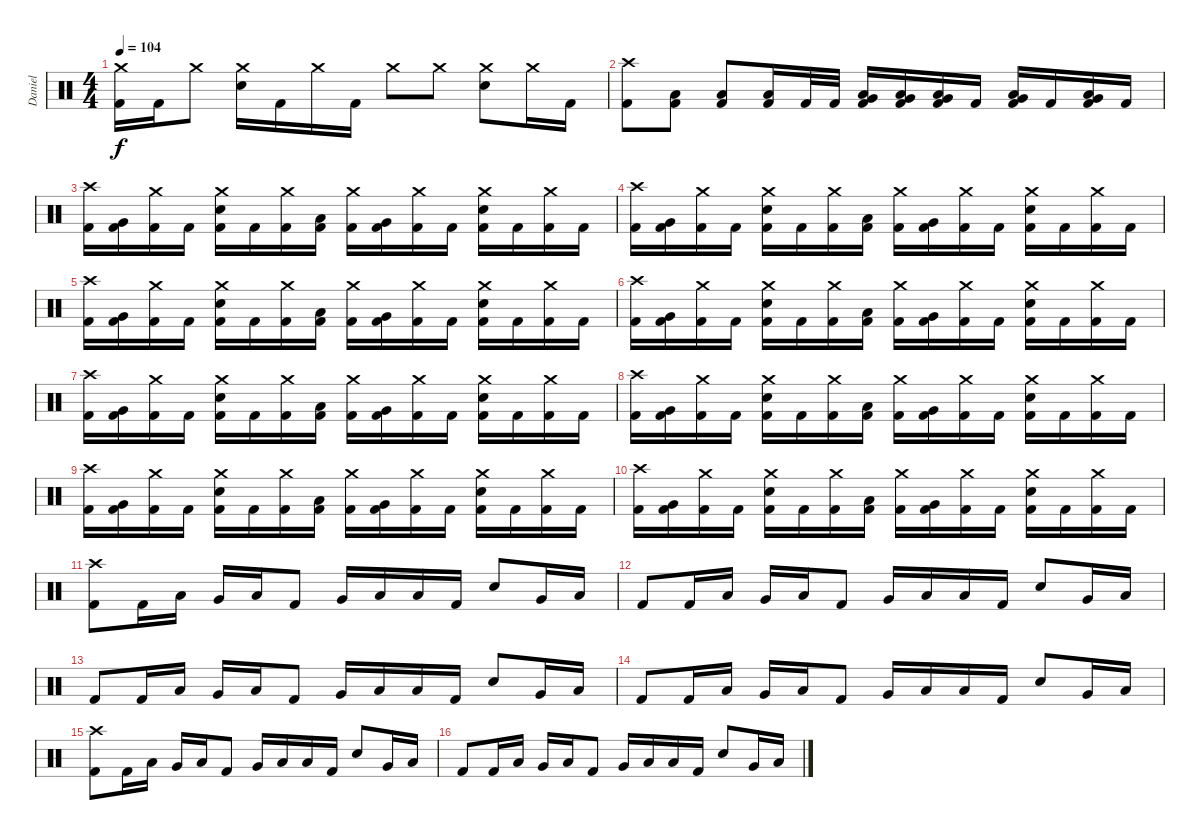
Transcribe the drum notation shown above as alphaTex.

\track ("Daniel" "Daniel") {instrument percussion}
\staff {score}
\articulation defaults
\ts (4 4)
\tempo 104
\clef neutral
\ks c
("Crash medium (hit)" "Kick (hit) 2").16{dy f} "Kick (hit) 2".16 "Crash medium (hit)".8 ("Crash medium (hit)" "Snare (hit) 2").16 "Kick (hit) 2".16 "Crash medium (hit)".16 "Kick (hit) 2".16 "Crash medium (hit)".8 "Crash medium (hit)".8 ("Crash medium (hit)" "Snare (hit) 2").8 "Crash medium (hit)".16 "Kick (hit) 2".16 |
("Crash high (hit)" "Kick (hit) 2").8 ("Low Floor Tom (hit)" "Kick (hit) 2").8 ("Low Floor Tom (hit)" "Kick (hit) 2").8 ("Low Floor Tom (hit)" "Kick (hit) 2").16 "Kick (hit) 2".32 "Kick (hit) 2".32 ("Low Tom (hit)" "Very Low Tom (hit)" "Kick (hit) 2").16 ("Low Tom (hit)" "Very Low Tom (hit)" "Kick (hit) 2").16 ("Low Tom (hit)" "Very Low Tom (hit)" "Kick (hit) 2").16 "Kick (hit) 2".16 ("Low Tom (hit)" "Very Low Tom (hit)" "Kick (hit) 2").16 "Kick (hit) 2".16 ("Very Low Tom (hit)" "Low Floor Tom (hit)" "Kick (hit) 2").16 "Kick (hit) 2".16 |
("Crash high (hit)" "Kick (hit) 2").16 ("Very Low Tom (hit)" "Kick (hit) 2").16 ("Crash medium (hit)" "Kick (hit) 2").16 "Kick (hit) 2".16 ("Crash medium (hit)" "Snare (hit) 2" "Kick (hit) 2").16 "Kick (hit) 2".16 ("Crash medium (hit)" "Kick (hit) 2").16 ("Low Tom (hit)" "Kick (hit) 2").16 ("Crash medium (hit)" "Kick (hit) 2").16 ("Very Low Tom (hit)" "Kick (hit) 2").16 ("Crash medium (hit)" "Kick (hit) 2").16 "Kick (hit) 2".16 ("Crash medium (hit)" "Snare (hit) 2" "Kick (hit) 2").16 "Kick (hit) 2".16 ("Crash medium (hit)" "Kick (hit) 2").16 "Kick (hit) 2".16 |
("Crash high (hit)" "Kick (hit) 2").16 ("Very Low Tom (hit)" "Kick (hit) 2").16 ("Crash medium (hit)" "Kick (hit) 2").16 "Kick (hit) 2".16 ("Crash medium (hit)" "Snare (hit) 2" "Kick (hit) 2").16 "Kick (hit) 2".16 ("Crash medium (hit)" "Kick (hit) 2").16 ("Low Tom (hit)" "Kick (hit) 2").16 ("Crash medium (hit)" "Kick (hit) 2").16 ("Very Low Tom (hit)" "Kick (hit) 2").16 ("Crash medium (hit)" "Kick (hit) 2").16 "Kick (hit) 2".16 ("Crash medium (hit)" "Snare (hit) 2" "Kick (hit) 2").16 "Kick (hit) 2".16 ("Crash medium (hit)" "Kick (hit) 2").16 "Kick (hit) 2".16 |
("Crash high (hit)" "Kick (hit) 2").16 ("Very Low Tom (hit)" "Kick (hit) 2").16 ("Crash medium (hit)" "Kick (hit) 2").16 "Kick (hit) 2".16 ("Crash medium (hit)" "Snare (hit) 2" "Kick (hit) 2").16 "Kick (hit) 2".16 ("Crash medium (hit)" "Kick (hit) 2").16 ("Low Tom (hit)" "Kick (hit) 2").16 ("Crash medium (hit)" "Kick (hit) 2").16 ("Very Low Tom (hit)" "Kick (hit) 2").16 ("Crash medium (hit)" "Kick (hit) 2").16 "Kick (hit) 2".16 ("Crash medium (hit)" "Snare (hit) 2" "Kick (hit) 2").16 "Kick (hit) 2".16 ("Crash medium (hit)" "Kick (hit) 2").16 "Kick (hit) 2".16 |
("Crash high (hit)" "Kick (hit) 2").16 ("Very Low Tom (hit)" "Kick (hit) 2").16 ("Crash medium (hit)" "Kick (hit) 2").16 "Kick (hit) 2".16 ("Crash medium (hit)" "Snare (hit) 2" "Kick (hit) 2").16 "Kick (hit) 2".16 ("Crash medium (hit)" "Kick (hit) 2").16 ("Low Tom (hit)" "Kick (hit) 2").16 ("Crash medium (hit)" "Kick (hit) 2").16 ("Very Low Tom (hit)" "Kick (hit) 2").16 ("Crash medium (hit)" "Kick (hit) 2").16 "Kick (hit) 2".16 ("Crash medium (hit)" "Snare (hit) 2" "Kick (hit) 2").16 "Kick (hit) 2".16 ("Crash medium (hit)" "Kick (hit) 2").16 "Kick (hit) 2".16 |
("Crash high (hit)" "Kick (hit) 2").16 ("Very Low Tom (hit)" "Kick (hit) 2").16 ("Crash medium (hit)" "Kick (hit) 2").16 "Kick (hit) 2".16 ("Crash medium (hit)" "Snare (hit) 2" "Kick (hit) 2").16 "Kick (hit) 2".16 ("Crash medium (hit)" "Kick (hit) 2").16 ("Low Tom (hit)" "Kick (hit) 2").16 ("Crash medium (hit)" "Kick (hit) 2").16 ("Very Low Tom (hit)" "Kick (hit) 2").16 ("Crash medium (hit)" "Kick (hit) 2").16 "Kick (hit) 2".16 ("Crash medium (hit)" "Snare (hit) 2" "Kick (hit) 2").16 "Kick (hit) 2".16 ("Crash medium (hit)" "Kick (hit) 2").16 "Kick (hit) 2".16 |
("Crash high (hit)" "Kick (hit) 2").16 ("Very Low Tom (hit)" "Kick (hit) 2").16 ("Crash medium (hit)" "Kick (hit) 2").16 "Kick (hit) 2".16 ("Crash medium (hit)" "Snare (hit) 2" "Kick (hit) 2").16 "Kick (hit) 2".16 ("Crash medium (hit)" "Kick (hit) 2").16 ("Low Tom (hit)" "Kick (hit) 2").16 ("Crash medium (hit)" "Kick (hit) 2").16 ("Very Low Tom (hit)" "Kick (hit) 2").16 ("Crash medium (hit)" "Kick (hit) 2").16 "Kick (hit) 2".16 ("Crash medium (hit)" "Snare (hit) 2" "Kick (hit) 2").16 "Kick (hit) 2".16 ("Crash medium (hit)" "Kick (hit) 2").16 "Kick (hit) 2".16 |
("Crash high (hit)" "Kick (hit) 2").16 ("Very Low Tom (hit)" "Kick (hit) 2").16 ("Crash medium (hit)" "Kick (hit) 2").16 "Kick (hit) 2".16 ("Crash medium (hit)" "Snare (hit) 2" "Kick (hit) 2").16 "Kick (hit) 2".16 ("Crash medium (hit)" "Kick (hit) 2").16 ("Low Tom (hit)" "Kick (hit) 2").16 ("Crash medium (hit)" "Kick (hit) 2").16 ("Very Low Tom (hit)" "Kick (hit) 2").16 ("Crash medium (hit)" "Kick (hit) 2").16 "Kick (hit) 2".16 ("Crash medium (hit)" "Snare (hit) 2" "Kick (hit) 2").16 "Kick (hit) 2".16 ("Crash medium (hit)" "Kick (hit) 2").16 "Kick (hit) 2".16 |
("Crash high (hit)" "Kick (hit) 2").16 ("Very Low Tom (hit)" "Kick (hit) 2").16 ("Crash medium (hit)" "Kick (hit) 2").16 "Kick (hit) 2".16 ("Crash medium (hit)" "Snare (hit) 2" "Kick (hit) 2").16 "Kick (hit) 2".16 ("Crash medium (hit)" "Kick (hit) 2").16 ("Low Tom (hit)" "Kick (hit) 2").16 ("Crash medium (hit)" "Kick (hit) 2").16 ("Very Low Tom (hit)" "Kick (hit) 2").16 ("Crash medium (hit)" "Kick (hit) 2").16 "Kick (hit) 2".16 ("Crash medium (hit)" "Snare (hit) 2" "Kick (hit) 2").16 "Kick (hit) 2".16 ("Crash medium (hit)" "Kick (hit) 2").16 "Kick (hit) 2".16 |
("Crash high (hit)" "Kick (hit) 2").8{volume 13} "Kick (hit) 2".16 "Low Tom (hit)".16 "Very Low Tom (hit)".16 "Low Tom (hit)".16 "Kick (hit) 2".8 "Very Low Tom (hit)".16 "Low Tom (hit)".16 "Low Floor Tom (hit)".16 "Kick (hit) 2".16 "Snare (hit) 2".8 "Very Low Tom (hit)".16 "Low Tom (hit)".16 |
"Kick (hit) 2".8 "Kick (hit) 2".16 "Low Tom (hit)".16 "Very Low Tom (hit)".16 "Low Tom (hit)".16 "Kick (hit) 2".8 "Very Low Tom (hit)".16 "Low Tom (hit)".16 "Low Floor Tom (hit)".16 "Kick (hit) 2".16 "Snare (hit) 2".8 "Very Low Tom (hit)".16 "Low Tom (hit)".16 |
"Kick (hit) 2".8 "Kick (hit) 2".16 "Low Tom (hit)".16 "Very Low Tom (hit)".16 "Low Tom (hit)".16 "Kick (hit) 2".8 "Very Low Tom (hit)".16 "Low Tom (hit)".16 "Low Floor Tom (hit)".16 "Kick (hit) 2".16 "Snare (hit) 2".8 "Very Low Tom (hit)".16 "Low Tom (hit)".16 |
"Kick (hit) 2".8 "Kick (hit) 2".16 "Low Tom (hit)".16 "Very Low Tom (hit)".16 "Low Tom (hit)".16 "Kick (hit) 2".8 "Very Low Tom (hit)".16 "Low Tom (hit)".16 "Low Floor Tom (hit)".16 "Kick (hit) 2".16 "Snare (hit) 2".8 "Very Low Tom (hit)".16 "Low Tom (hit)".16 |
("Crash high (hit)" "Kick (hit) 2").8{volume 13} "Kick (hit) 2".16 "Low Tom (hit)".16 "Very Low Tom (hit)".16 "Low Tom (hit)".16 "Kick (hit) 2".8 "Very Low Tom (hit)".16 "Low Tom (hit)".16 "Low Floor Tom (hit)".16 "Kick (hit) 2".16 "Snare (hit) 2".8 "Very Low Tom (hit)".16 "Low Tom (hit)".16 |
"Kick (hit) 2".8 "Kick (hit) 2".16 "Low Tom (hit)".16 "Very Low Tom (hit)".16 "Low Tom (hit)".16 "Kick (hit) 2".8 "Very Low Tom (hit)".16 "Low Tom (hit)".16 "Low Floor Tom (hit)".16 "Kick (hit) 2".16 "Snare (hit) 2".8 "Very Low Tom (hit)".16 "Low Tom (hit)".16
